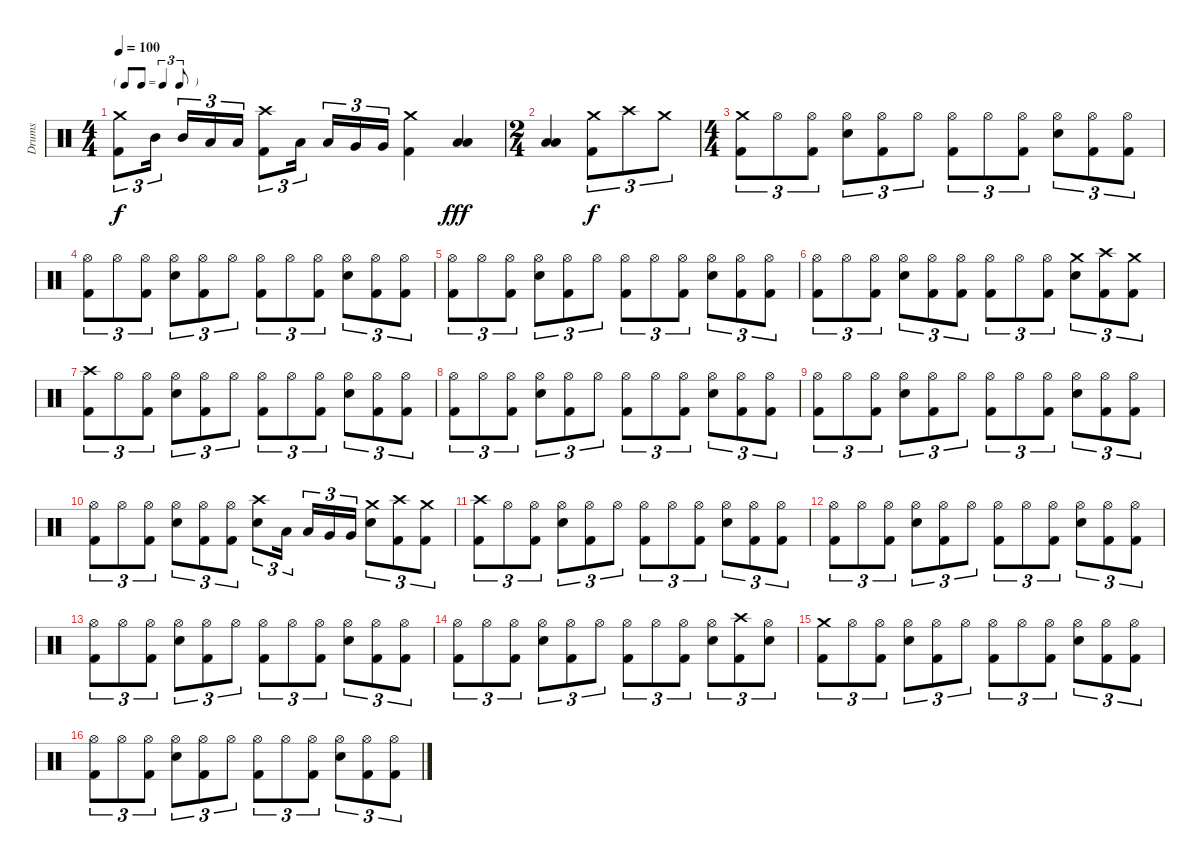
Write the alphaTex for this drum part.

\track ("Drums" "Drums") {instrument percussion}
\staff {score}
\articulation defaults
\ts (4 4)
\tf triplet8th
\tempo 100
\clef neutral
\ks c
("Crash medium (hit)" "Kick (hit) 2").8{tu (3 2) dy f} "Mid Tom (hit)".16{tu (3 2) beam splitsecondary} "Mid Tom (hit)".16{tu (3 2)} "Low Tom (hit)".16{tu (3 2)} "Low Tom (hit)".16{tu (3 2)} ("Crash high (hit)" "Kick (hit) 2").8{tu (3 2)} "Low Tom (hit)".16{tu (3 2) beam splitsecondary} "Low Tom (hit)".16{tu (3 2)} "Very Low Tom (hit)".16{tu (3 2)} "Very Low Tom (hit)".16{tu (3 2)} ("Crash medium (hit)" "Kick (hit) 2").4 ("Low Floor Tom (hit)" "Low Floor Tom (hit)").4{dy fff} |
\ts (2 4)
("Low Floor Tom (hit)" "Low Floor Tom (hit)").4 ("Crash medium (hit)" "Kick (hit) 2").8{tu (3 2) dy f} "Crash high (hit)".8{tu (3 2)} "Crash medium (hit)".8{tu (3 2)} |
\ts (4 4)
("Crash medium (hit)" "Kick (hit) 2").8{tu (3 2)} "Hi-Hat (open)".8{tu (3 2)} ("Hi-Hat (open)" "Kick (hit) 2").8{tu (3 2)} ("Hi-Hat (open)" "Snare (hit) 2").8{tu (3 2)} ("Hi-Hat (open)" "Kick (hit) 2").8{tu (3 2)} "Hi-Hat (open)".8{tu (3 2)} ("Hi-Hat (open)" "Kick (hit) 2").8{tu (3 2)} "Hi-Hat (open)".8{tu (3 2)} ("Hi-Hat (open)" "Kick (hit) 2").8{tu (3 2)} ("Hi-Hat (open)" "Snare (hit) 2").8{tu (3 2)} ("Hi-Hat (open)" "Kick (hit) 2").8{tu (3 2)} ("Hi-Hat (open)" "Kick (hit) 2").8{tu (3 2)} |
("Hi-Hat (open)" "Kick (hit) 2").8{tu (3 2)} "Hi-Hat (open)".8{tu (3 2)} ("Hi-Hat (open)" "Kick (hit) 2").8{tu (3 2)} ("Hi-Hat (open)" "Snare (hit) 2").8{tu (3 2)} ("Hi-Hat (open)" "Kick (hit) 2").8{tu (3 2)} "Hi-Hat (open)".8{tu (3 2)} ("Hi-Hat (open)" "Kick (hit) 2").8{tu (3 2)} "Hi-Hat (open)".8{tu (3 2)} ("Hi-Hat (open)" "Kick (hit) 2").8{tu (3 2)} ("Hi-Hat (open)" "Snare (hit) 2").8{tu (3 2)} ("Hi-Hat (open)" "Kick (hit) 2").8{tu (3 2)} ("Hi-Hat (open)" "Kick (hit) 2").8{tu (3 2)} |
("Hi-Hat (open)" "Kick (hit) 2").8{tu (3 2)} "Hi-Hat (open)".8{tu (3 2)} ("Hi-Hat (open)" "Kick (hit) 2").8{tu (3 2)} ("Hi-Hat (open)" "Snare (hit) 2").8{tu (3 2)} ("Hi-Hat (open)" "Kick (hit) 2").8{tu (3 2)} "Hi-Hat (open)".8{tu (3 2)} ("Hi-Hat (open)" "Kick (hit) 2").8{tu (3 2)} "Hi-Hat (open)".8{tu (3 2)} ("Hi-Hat (open)" "Kick (hit) 2").8{tu (3 2)} ("Hi-Hat (open)" "Snare (hit) 2").8{tu (3 2)} ("Hi-Hat (open)" "Kick (hit) 2").8{tu (3 2)} ("Hi-Hat (open)" "Kick (hit) 2").8{tu (3 2)} |
("Hi-Hat (open)" "Kick (hit) 2").8{tu (3 2)} "Hi-Hat (open)".8{tu (3 2)} ("Hi-Hat (open)" "Kick (hit) 2").8{tu (3 2)} ("Hi-Hat (open)" "Snare (hit) 2").8{tu (3 2)} ("Hi-Hat (open)" "Kick (hit) 2").8{tu (3 2)} ("Hi-Hat (open)" "Kick (hit) 2").8{tu (3 2)} ("Hi-Hat (open)" "Kick (hit) 2").8{tu (3 2)} "Hi-Hat (open)".8{tu (3 2)} ("Hi-Hat (open)" "Kick (hit) 2").8{tu (3 2)} ("Crash medium (hit)" "Snare (hit) 2").8{tu (3 2)} ("Crash high (hit)" "Kick (hit) 2").8{tu (3 2)} ("Crash medium (hit)" "Kick (hit) 2").8{tu (3 2)} |
("Crash high (hit)" "Kick (hit) 2").8{tu (3 2)} "Hi-Hat (open)".8{tu (3 2)} ("Hi-Hat (open)" "Kick (hit) 2").8{tu (3 2)} ("Hi-Hat (open)" "Snare (hit) 2").8{tu (3 2)} ("Hi-Hat (open)" "Kick (hit) 2").8{tu (3 2)} "Hi-Hat (open)".8{tu (3 2)} ("Hi-Hat (open)" "Kick (hit) 2").8{tu (3 2)} "Hi-Hat (open)".8{tu (3 2)} ("Hi-Hat (open)" "Kick (hit) 2").8{tu (3 2)} ("Hi-Hat (open)" "Snare (hit) 2").8{tu (3 2)} ("Hi-Hat (open)" "Kick (hit) 2").8{tu (3 2)} ("Hi-Hat (open)" "Kick (hit) 2").8{tu (3 2)} |
("Hi-Hat (open)" "Kick (hit) 2").8{tu (3 2)} "Hi-Hat (open)".8{tu (3 2)} ("Hi-Hat (open)" "Kick (hit) 2").8{tu (3 2)} ("Hi-Hat (open)" "Snare (hit) 2").8{tu (3 2)} ("Hi-Hat (open)" "Kick (hit) 2").8{tu (3 2)} "Hi-Hat (open)".8{tu (3 2)} ("Hi-Hat (open)" "Kick (hit) 2").8{tu (3 2)} "Hi-Hat (open)".8{tu (3 2)} ("Hi-Hat (open)" "Kick (hit) 2").8{tu (3 2)} ("Hi-Hat (open)" "Snare (hit) 2").8{tu (3 2)} ("Hi-Hat (open)" "Kick (hit) 2").8{tu (3 2)} ("Hi-Hat (open)" "Kick (hit) 2").8{tu (3 2)} |
("Hi-Hat (open)" "Kick (hit) 2").8{tu (3 2)} "Hi-Hat (open)".8{tu (3 2)} ("Hi-Hat (open)" "Kick (hit) 2").8{tu (3 2)} ("Hi-Hat (open)" "Snare (hit) 2").8{tu (3 2)} ("Hi-Hat (open)" "Kick (hit) 2").8{tu (3 2)} "Hi-Hat (open)".8{tu (3 2)} ("Hi-Hat (open)" "Kick (hit) 2").8{tu (3 2)} "Hi-Hat (open)".8{tu (3 2)} ("Hi-Hat (open)" "Kick (hit) 2").8{tu (3 2)} ("Hi-Hat (open)" "Snare (hit) 2").8{tu (3 2)} ("Hi-Hat (open)" "Kick (hit) 2").8{tu (3 2)} ("Hi-Hat (open)" "Kick (hit) 2").8{tu (3 2)} |
("Hi-Hat (open)" "Kick (hit) 2").8{tu (3 2)} "Hi-Hat (open)".8{tu (3 2)} ("Hi-Hat (open)" "Kick (hit) 2").8{tu (3 2)} ("Hi-Hat (open)" "Snare (hit) 2").8{tu (3 2)} ("Hi-Hat (open)" "Kick (hit) 2").8{tu (3 2)} ("Hi-Hat (open)" "Kick (hit) 2").8{tu (3 2)} ("Crash high (hit)" "Snare (hit) 2").8{tu (3 2)} "Low Tom (hit)".16{tu (3 2) beam splitsecondary} "Low Tom (hit)".16{tu (3 2)} "Very Low Tom (hit)".16{tu (3 2)} "Very Low Tom (hit)".16{tu (3 2)} ("Crash medium (hit)" "Snare (hit) 2").8{tu (3 2)} ("Crash high (hit)" "Kick (hit) 2").8{tu (3 2)} ("Crash medium (hit)" "Kick (hit) 2").8{tu (3 2)} |
("Crash high (hit)" "Kick (hit) 2").8{tu (3 2)} "Hi-Hat (open)".8{tu (3 2)} ("Hi-Hat (open)" "Kick (hit) 2").8{tu (3 2)} ("Hi-Hat (open)" "Snare (hit) 2").8{tu (3 2)} ("Hi-Hat (open)" "Kick (hit) 2").8{tu (3 2)} "Hi-Hat (open)".8{tu (3 2)} ("Hi-Hat (open)" "Kick (hit) 2").8{tu (3 2)} "Hi-Hat (open)".8{tu (3 2)} ("Hi-Hat (open)" "Kick (hit) 2").8{tu (3 2)} ("Hi-Hat (open)" "Snare (hit) 2").8{tu (3 2)} ("Hi-Hat (open)" "Kick (hit) 2").8{tu (3 2)} ("Hi-Hat (open)" "Kick (hit) 2").8{tu (3 2)} |
("Hi-Hat (open)" "Kick (hit) 2").8{tu (3 2)} "Hi-Hat (open)".8{tu (3 2)} ("Hi-Hat (open)" "Kick (hit) 2").8{tu (3 2)} ("Hi-Hat (open)" "Snare (hit) 2").8{tu (3 2)} ("Hi-Hat (open)" "Kick (hit) 2").8{tu (3 2)} "Hi-Hat (open)".8{tu (3 2)} ("Hi-Hat (open)" "Kick (hit) 2").8{tu (3 2)} "Hi-Hat (open)".8{tu (3 2)} ("Hi-Hat (open)" "Kick (hit) 2").8{tu (3 2)} ("Hi-Hat (open)" "Snare (hit) 2").8{tu (3 2)} ("Hi-Hat (open)" "Kick (hit) 2").8{tu (3 2)} ("Hi-Hat (open)" "Kick (hit) 2").8{tu (3 2)} |
("Hi-Hat (open)" "Kick (hit) 2").8{tu (3 2)} "Hi-Hat (open)".8{tu (3 2)} ("Hi-Hat (open)" "Kick (hit) 2").8{tu (3 2)} ("Hi-Hat (open)" "Snare (hit) 2").8{tu (3 2)} ("Hi-Hat (open)" "Kick (hit) 2").8{tu (3 2)} "Hi-Hat (open)".8{tu (3 2)} ("Hi-Hat (open)" "Kick (hit) 2").8{tu (3 2)} "Hi-Hat (open)".8{tu (3 2)} ("Hi-Hat (open)" "Kick (hit) 2").8{tu (3 2)} ("Hi-Hat (open)" "Snare (hit) 2").8{tu (3 2)} ("Hi-Hat (open)" "Kick (hit) 2").8{tu (3 2)} ("Hi-Hat (open)" "Kick (hit) 2").8{tu (3 2)} |
("Hi-Hat (open)" "Kick (hit) 2").8{tu (3 2)} "Hi-Hat (open)".8{tu (3 2)} ("Hi-Hat (open)" "Kick (hit) 2").8{tu (3 2)} ("Hi-Hat (open)" "Snare (hit) 2").8{tu (3 2)} ("Hi-Hat (open)" "Kick (hit) 2").8{tu (3 2)} "Hi-Hat (open)".8{tu (3 2)} ("Hi-Hat (open)" "Kick (hit) 2").8{tu (3 2)} "Hi-Hat (open)".8{tu (3 2)} ("Hi-Hat (open)" "Kick (hit) 2").8{tu (3 2)} ("Hi-Hat (open)" "Snare (hit) 2").8{tu (3 2)} ("Crash high (hit)" "Kick (hit) 2").8{tu (3 2)} ("Hi-Hat (open)" "Snare (hit) 2").8{tu (3 2)} |
("Crash medium (hit)" "Kick (hit) 2").8{tu (3 2)} "Hi-Hat (open)".8{tu (3 2)} ("Hi-Hat (open)" "Kick (hit) 2").8{tu (3 2)} ("Hi-Hat (open)" "Snare (hit) 2").8{tu (3 2)} ("Hi-Hat (open)" "Kick (hit) 2").8{tu (3 2)} "Hi-Hat (open)".8{tu (3 2)} ("Hi-Hat (open)" "Kick (hit) 2").8{tu (3 2)} "Hi-Hat (open)".8{tu (3 2)} ("Hi-Hat (open)" "Kick (hit) 2").8{tu (3 2)} ("Hi-Hat (open)" "Snare (hit) 2").8{tu (3 2)} ("Hi-Hat (open)" "Kick (hit) 2").8{tu (3 2)} ("Hi-Hat (open)" "Kick (hit) 2").8{tu (3 2)} |
("Hi-Hat (open)" "Kick (hit) 2").8{tu (3 2)} "Hi-Hat (open)".8{tu (3 2)} ("Hi-Hat (open)" "Kick (hit) 2").8{tu (3 2)} ("Hi-Hat (open)" "Snare (hit) 2").8{tu (3 2)} ("Hi-Hat (open)" "Kick (hit) 2").8{tu (3 2)} "Hi-Hat (open)".8{tu (3 2)} ("Hi-Hat (open)" "Kick (hit) 2").8{tu (3 2)} "Hi-Hat (open)".8{tu (3 2)} ("Hi-Hat (open)" "Kick (hit) 2").8{tu (3 2)} ("Hi-Hat (open)" "Snare (hit) 2").8{tu (3 2)} ("Hi-Hat (open)" "Kick (hit) 2").8{tu (3 2)} ("Hi-Hat (open)" "Kick (hit) 2").8{tu (3 2)}
